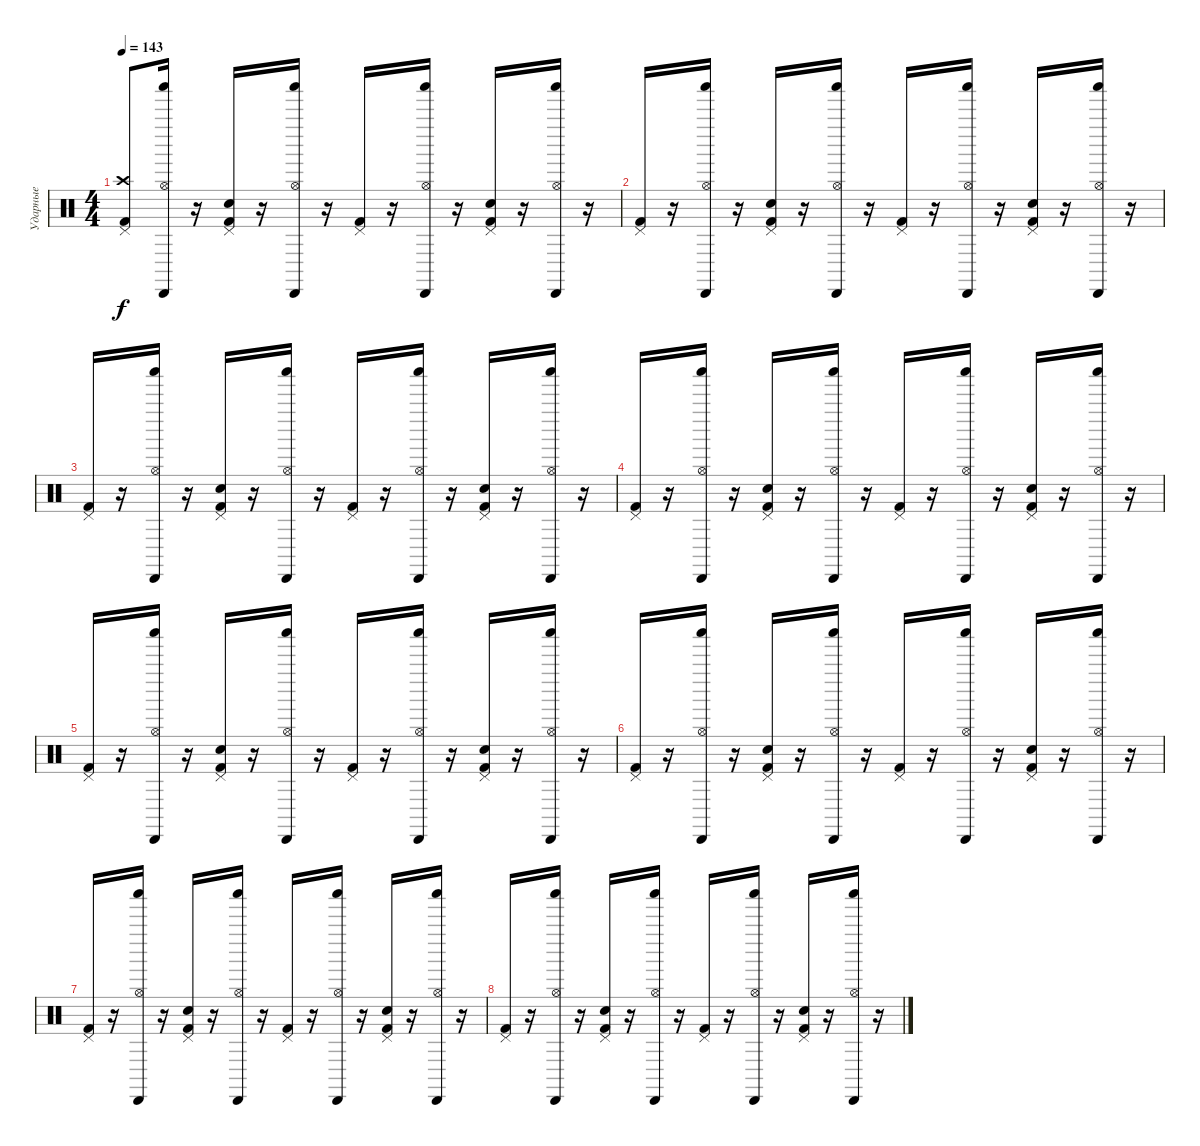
\track ("Ударные" "Ударные") {instrument percussion}
\staff {score}
\articulation defaults
\ts (4 4)
\tempo 143
\clef neutral
\ks c
("Crash high (hit)" "Kick (hit) 2" "Pedal Hi-Hat (hit)").8{dy f} ("Hi-Hat (open)" "Shaker (hit)" "Cabasa (hit)").16 r.16 ("Snare (hit) 2" "Kick (hit) 2" "Pedal Hi-Hat (hit)").16 r.16 ("Hi-Hat (open)" "Shaker (hit)" "Cabasa (hit)").16 r.16 ("Kick (hit) 2" "Pedal Hi-Hat (hit)").16 r.16 ("Hi-Hat (open)" "Shaker (hit)" "Cabasa (hit)").16 r.16 ("Snare (hit) 2" "Kick (hit) 2" "Pedal Hi-Hat (hit)").16 r.16 ("Hi-Hat (open)" "Shaker (hit)" "Cabasa (hit)").16 r.16 |
("Kick (hit) 2" "Pedal Hi-Hat (hit)").16 r.16 ("Hi-Hat (open)" "Shaker (hit)" "Cabasa (hit)").16 r.16 ("Snare (hit) 2" "Kick (hit) 2" "Pedal Hi-Hat (hit)").16 r.16 ("Hi-Hat (open)" "Shaker (hit)" "Cabasa (hit)").16 r.16 ("Kick (hit) 2" "Pedal Hi-Hat (hit)").16 r.16 ("Hi-Hat (open)" "Shaker (hit)" "Cabasa (hit)").16 r.16 ("Kick (hit) 2" "Snare (hit) 2" "Pedal Hi-Hat (hit)").16 r.16 ("Hi-Hat (open)" "Shaker (hit)" "Cabasa (hit)").16 r.16 |
("Kick (hit) 2" "Pedal Hi-Hat (hit)").16 r.16 ("Hi-Hat (open)" "Shaker (hit)" "Cabasa (hit)").16 r.16 ("Kick (hit) 2" "Snare (hit) 2" "Pedal Hi-Hat (hit)").16 r.16 ("Hi-Hat (open)" "Shaker (hit)" "Cabasa (hit)").16 r.16 ("Kick (hit) 2" "Pedal Hi-Hat (hit)").16 r.16 ("Hi-Hat (open)" "Shaker (hit)" "Cabasa (hit)").16 r.16 ("Kick (hit) 2" "Snare (hit) 2" "Pedal Hi-Hat (hit)").16 r.16 ("Hi-Hat (open)" "Shaker (hit)" "Cabasa (hit)").16 r.16 |
("Kick (hit) 2" "Pedal Hi-Hat (hit)").16 r.16 ("Hi-Hat (open)" "Shaker (hit)" "Cabasa (hit)").16 r.16 ("Kick (hit) 2" "Snare (hit) 2" "Pedal Hi-Hat (hit)").16 r.16 ("Hi-Hat (open)" "Shaker (hit)" "Cabasa (hit)").16 r.16 ("Kick (hit) 2" "Pedal Hi-Hat (hit)").16 r.16 ("Hi-Hat (open)" "Shaker (hit)" "Cabasa (hit)").16 r.16 ("Kick (hit) 2" "Snare (hit) 2" "Pedal Hi-Hat (hit)").16 r.16 ("Hi-Hat (open)" "Shaker (hit)" "Cabasa (hit)").16 r.16 |
("Kick (hit) 2" "Pedal Hi-Hat (hit)").16 r.16 ("Hi-Hat (open)" "Shaker (hit)" "Cabasa (hit)").16 r.16 ("Snare (hit) 2" "Kick (hit) 2" "Pedal Hi-Hat (hit)").16 r.16 ("Hi-Hat (open)" "Shaker (hit)" "Cabasa (hit)").16 r.16 ("Kick (hit) 2" "Pedal Hi-Hat (hit)").16 r.16 ("Hi-Hat (open)" "Shaker (hit)" "Cabasa (hit)").16 r.16 ("Snare (hit) 2" "Kick (hit) 2" "Pedal Hi-Hat (hit)").16 r.16 ("Hi-Hat (open)" "Shaker (hit)" "Cabasa (hit)").16 r.16 |
("Kick (hit) 2" "Pedal Hi-Hat (hit)").16 r.16 ("Hi-Hat (open)" "Shaker (hit)" "Cabasa (hit)").16 r.16 ("Kick (hit) 2" "Snare (hit) 2" "Pedal Hi-Hat (hit)").16 r.16 ("Hi-Hat (open)" "Shaker (hit)" "Cabasa (hit)").16 r.16 ("Kick (hit) 2" "Pedal Hi-Hat (hit)").16 r.16 ("Hi-Hat (open)" "Shaker (hit)" "Cabasa (hit)").16 r.16 ("Kick (hit) 2" "Snare (hit) 2" "Pedal Hi-Hat (hit)").16 r.16 ("Hi-Hat (open)" "Shaker (hit)" "Cabasa (hit)").16 r.16 |
("Kick (hit) 2" "Pedal Hi-Hat (hit)").16 r.16 ("Hi-Hat (open)" "Shaker (hit)" "Cabasa (hit)").16 r.16 ("Snare (hit) 2" "Kick (hit) 2" "Pedal Hi-Hat (hit)").16 r.16 ("Hi-Hat (open)" "Shaker (hit)" "Cabasa (hit)").16 r.16 ("Kick (hit) 2" "Pedal Hi-Hat (hit)").16 r.16 ("Hi-Hat (open)" "Shaker (hit)" "Cabasa (hit)").16 r.16 ("Kick (hit) 2" "Snare (hit) 2" "Pedal Hi-Hat (hit)").16 r.16 ("Hi-Hat (open)" "Shaker (hit)" "Cabasa (hit)").16 r.16 |
("Kick (hit) 2" "Pedal Hi-Hat (hit)").16 r.16 ("Hi-Hat (open)" "Shaker (hit)" "Cabasa (hit)").16 r.16 ("Snare (hit) 2" "Kick (hit) 2" "Pedal Hi-Hat (hit)").16 r.16 ("Hi-Hat (open)" "Shaker (hit)" "Cabasa (hit)").16 r.16 ("Kick (hit) 2" "Pedal Hi-Hat (hit)").16 r.16 ("Hi-Hat (open)" "Shaker (hit)" "Cabasa (hit)").16 r.16 ("Snare (hit) 2" "Kick (hit) 2" "Pedal Hi-Hat (hit)").16 r.16 ("Hi-Hat (open)" "Shaker (hit)" "Cabasa (hit)").16 r.16
